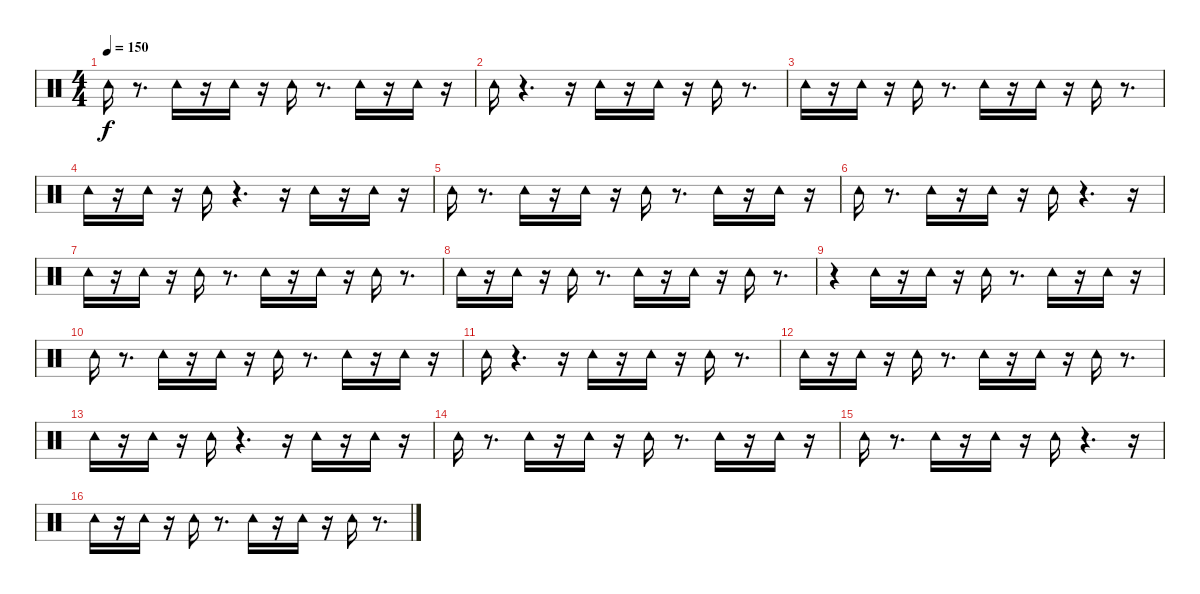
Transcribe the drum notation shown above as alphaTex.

\track "" {instrument percussion}
\staff {score}
\articulation defaults
\ts (4 4)
\tempo 150
\clef neutral
\ks c "Tambourine (hit)".16{dy f}
r.8{d} "Tambourine (hit)".16 r.16 "Tambourine (hit)".16 r.16 "Tambourine (hit)".16 r.8{d} "Tambourine (hit)".16 r.16 "Tambourine (hit)".16 r.16 |
"Tambourine (hit)".16 r.4{d} r.16 "Tambourine (hit)".16 r.16 "Tambourine (hit)".16 r.16 "Tambourine (hit)".16 r.8{d} |
"Tambourine (hit)".16 r.16 "Tambourine (hit)".16 r.16 "Tambourine (hit)".16 r.8{d} "Tambourine (hit)".16 r.16 "Tambourine (hit)".16 r.16 "Tambourine (hit)".16 r.8{d} |
"Tambourine (hit)".16 r.16 "Tambourine (hit)".16 r.16 "Tambourine (hit)".16 r.4{d} r.16 "Tambourine (hit)".16 r.16 "Tambourine (hit)".16 r.16 |
"Tambourine (hit)".16 r.8{d} "Tambourine (hit)".16 r.16 "Tambourine (hit)".16 r.16 "Tambourine (hit)".16 r.8{d} "Tambourine (hit)".16 r.16 "Tambourine (hit)".16 r.16 |
"Tambourine (hit)".16 r.8{d} "Tambourine (hit)".16 r.16 "Tambourine (hit)".16 r.16 "Tambourine (hit)".16 r.4{d} r.16 |
"Tambourine (hit)".16 r.16 "Tambourine (hit)".16 r.16 "Tambourine (hit)".16 r.8{d} "Tambourine (hit)".16 r.16 "Tambourine (hit)".16 r.16 "Tambourine (hit)".16 r.8{d} |
"Tambourine (hit)".16 r.16 "Tambourine (hit)".16 r.16 "Tambourine (hit)".16 r.8{d} "Tambourine (hit)".16 r.16 "Tambourine (hit)".16 r.16 "Tambourine (hit)".16 r.8{d} |
r.4 "Tambourine (hit)".16 r.16 "Tambourine (hit)".16 r.16 "Tambourine (hit)".16 r.8{d} "Tambourine (hit)".16 r.16 "Tambourine (hit)".16 r.16 |
"Tambourine (hit)".16 r.8{d} "Tambourine (hit)".16 r.16 "Tambourine (hit)".16 r.16 "Tambourine (hit)".16 r.8{d} "Tambourine (hit)".16 r.16 "Tambourine (hit)".16 r.16 |
"Tambourine (hit)".16 r.4{d} r.16 "Tambourine (hit)".16 r.16 "Tambourine (hit)".16 r.16 "Tambourine (hit)".16 r.8{d} |
"Tambourine (hit)".16 r.16 "Tambourine (hit)".16 r.16 "Tambourine (hit)".16 r.8{d} "Tambourine (hit)".16 r.16 "Tambourine (hit)".16 r.16 "Tambourine (hit)".16 r.8{d} |
"Tambourine (hit)".16 r.16 "Tambourine (hit)".16 r.16 "Tambourine (hit)".16 r.4{d} r.16 "Tambourine (hit)".16 r.16 "Tambourine (hit)".16 r.16 |
"Tambourine (hit)".16 r.8{d} "Tambourine (hit)".16 r.16 "Tambourine (hit)".16 r.16 "Tambourine (hit)".16 r.8{d} "Tambourine (hit)".16 r.16 "Tambourine (hit)".16 r.16 |
"Tambourine (hit)".16 r.8{d} "Tambourine (hit)".16 r.16 "Tambourine (hit)".16 r.16 "Tambourine (hit)".16 r.4{d} r.16 |
"Tambourine (hit)".16 r.16 "Tambourine (hit)".16 r.16 "Tambourine (hit)".16 r.8{d} "Tambourine (hit)".16 r.16 "Tambourine (hit)".16 r.16 "Tambourine (hit)".16 r.8{d}
